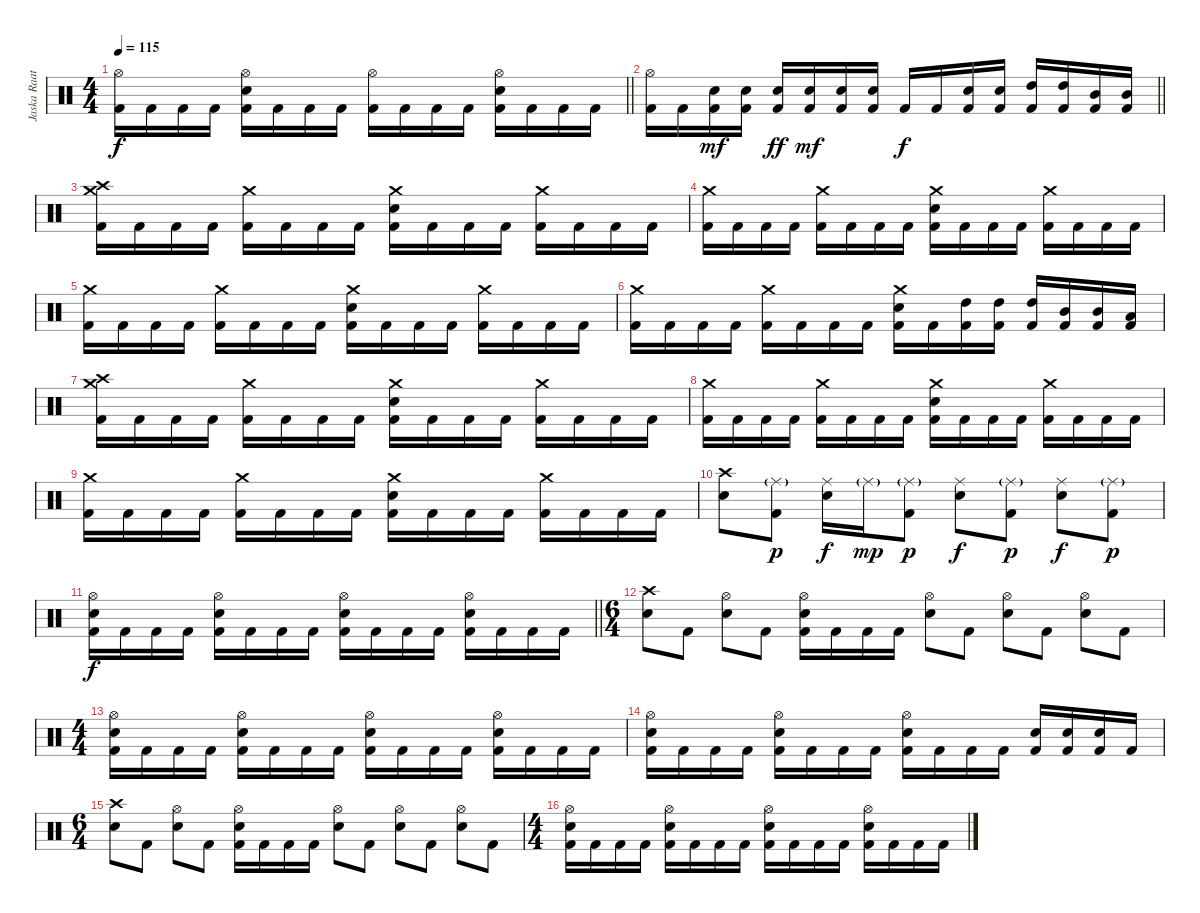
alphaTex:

\track ("Jaska Raatikainen" "Jaska Raat") {instrument percussion}
\staff {score}
\articulation defaults
\ts (4 4)
\tempo 115
\clef neutral
\barLineRight lightlight
\ks c
("Hi-Hat (open)" "Kick (hit) 2").16{dy f} "Kick (hit) 2".16 "Kick (hit) 2".16 "Kick (hit) 2".16 ("Hi-Hat (open)" "Electric Snare (hit)" "Kick (hit) 2").16 "Kick (hit) 2".16 "Kick (hit) 2".16 "Kick (hit) 2".16 ("Hi-Hat (open)" "Kick (hit) 2").16 "Kick (hit) 2".16 "Kick (hit) 2".16 "Kick (hit) 2".16 ("Hi-Hat (open)" "Electric Snare (hit)" "Kick (hit) 2").16 "Kick (hit) 2".16 "Kick (hit) 2".16 "Kick (hit) 2".16 |
\barLineRight lightlight
("Hi-Hat (open)" "Kick (hit) 2").16 "Kick (hit) 2".16 ("Electric Snare (hit)" "Kick (hit) 2").16{dy mf} ("Electric Snare (hit)" "Kick (hit) 2").16 ("Electric Snare (hit)" "Kick (hit) 2").16{dy ff} ("Electric Snare (hit)" "Kick (hit) 2").16{dy mf} ("Electric Snare (hit)" "Kick (hit) 2").16 ("Electric Snare (hit)" "Kick (hit) 2").16 "Kick (hit) 2".16{dy f} "Kick (hit) 2".16 ("Electric Snare (hit)" "Kick (hit) 2").16 ("Electric Snare (hit)" "Kick (hit) 2").16 ("High Tom (hit)" "Kick (hit) 2").16 ("High Tom (hit)" "Kick (hit) 2").16 ("Mid Tom (hit)" "Kick (hit) 2").16 ("Mid Tom (hit)" "Kick (hit) 2").16 |
("Crash high (hit)" "Crash medium (hit)" "Kick (hit) 2").16 "Kick (hit) 2".16 "Kick (hit) 2".16 "Kick (hit) 2".16 ("Crash medium (hit)" "Kick (hit) 2").16 "Kick (hit) 2".16 "Kick (hit) 2".16 "Kick (hit) 2".16 ("Crash medium (hit)" "Electric Snare (hit)" "Kick (hit) 2").16 "Kick (hit) 2".16 "Kick (hit) 2".16 "Kick (hit) 2".16 ("Crash medium (hit)" "Kick (hit) 2").16 "Kick (hit) 2".16 "Kick (hit) 2".16 "Kick (hit) 2".16 |
("Crash medium (hit)" "Kick (hit) 2").16 "Kick (hit) 2".16 "Kick (hit) 2".16 "Kick (hit) 2".16 ("Crash medium (hit)" "Kick (hit) 2").16 "Kick (hit) 2".16 "Kick (hit) 2".16 "Kick (hit) 2".16 ("Crash medium (hit)" "Electric Snare (hit)" "Kick (hit) 2").16 "Kick (hit) 2".16 "Kick (hit) 2".16 "Kick (hit) 2".16 ("Crash medium (hit)" "Kick (hit) 2").16 "Kick (hit) 2".16 "Kick (hit) 2".16 "Kick (hit) 2".16 |
("Crash medium (hit)" "Kick (hit) 2").16 "Kick (hit) 2".16 "Kick (hit) 2".16 "Kick (hit) 2".16 ("Crash medium (hit)" "Kick (hit) 2").16 "Kick (hit) 2".16 "Kick (hit) 2".16 "Kick (hit) 2".16 ("Crash medium (hit)" "Electric Snare (hit)" "Kick (hit) 2").16 "Kick (hit) 2".16 "Kick (hit) 2".16 "Kick (hit) 2".16 ("Crash medium (hit)" "Kick (hit) 2").16 "Kick (hit) 2".16 "Kick (hit) 2".16 "Kick (hit) 2".16 |
("Crash medium (hit)" "Kick (hit) 2").16 "Kick (hit) 2".16 "Kick (hit) 2".16 "Kick (hit) 2".16 ("Crash medium (hit)" "Kick (hit) 2").16 "Kick (hit) 2".16 "Kick (hit) 2".16 "Kick (hit) 2".16 ("Crash medium (hit)" "Electric Snare (hit)" "Kick (hit) 2").16 "Kick (hit) 2".16 ("High Tom (hit)" "Kick (hit) 2").16 ("High Tom (hit)" "Kick (hit) 2").16 ("High Tom (hit)" "Kick (hit) 2").16 ("Mid Tom (hit)" "Kick (hit) 2").16 ("Mid Tom (hit)" "Kick (hit) 2").16 ("Low Tom (hit)" "Kick (hit) 2").16 |
("Crash high (hit)" "Crash medium (hit)" "Kick (hit) 2").16 "Kick (hit) 2".16 "Kick (hit) 2".16 "Kick (hit) 2".16 ("Crash medium (hit)" "Kick (hit) 2").16 "Kick (hit) 2".16 "Kick (hit) 2".16 "Kick (hit) 2".16 ("Crash medium (hit)" "Electric Snare (hit)" "Kick (hit) 2").16 "Kick (hit) 2".16 "Kick (hit) 2".16 "Kick (hit) 2".16 ("Crash medium (hit)" "Kick (hit) 2").16 "Kick (hit) 2".16 "Kick (hit) 2".16 "Kick (hit) 2".16 |
("Crash medium (hit)" "Kick (hit) 2").16 "Kick (hit) 2".16 "Kick (hit) 2".16 "Kick (hit) 2".16 ("Crash medium (hit)" "Kick (hit) 2").16 "Kick (hit) 2".16 "Kick (hit) 2".16 "Kick (hit) 2".16 ("Crash medium (hit)" "Electric Snare (hit)" "Kick (hit) 2").16 "Kick (hit) 2".16 "Kick (hit) 2".16 "Kick (hit) 2".16 ("Crash medium (hit)" "Kick (hit) 2").16 "Kick (hit) 2".16 "Kick (hit) 2".16 "Kick (hit) 2".16 |
("Crash medium (hit)" "Kick (hit) 2").16 "Kick (hit) 2".16 "Kick (hit) 2".16 "Kick (hit) 2".16 ("Crash medium (hit)" "Kick (hit) 2").16 "Kick (hit) 2".16 "Kick (hit) 2".16 "Kick (hit) 2".16 ("Crash medium (hit)" "Electric Snare (hit)" "Kick (hit) 2").16 "Kick (hit) 2".16 "Kick (hit) 2".16 "Kick (hit) 2".16 ("Crash medium (hit)" "Kick (hit) 2").16 "Kick (hit) 2".16 "Kick (hit) 2".16 "Kick (hit) 2".16 |
("Crash high (hit)" "Electric Snare (hit)").8 ("Ride (middle)"{g} "Kick (hit) 2").8{dy p} ("Ride (middle)" "Electric Snare (hit)").16{dy f} "Ride (middle)"{g}.16{dy mp} ("Ride (middle)"{g} "Kick (hit) 2").8{dy p} ("Ride (middle)" "Electric Snare (hit)").8{dy f} ("Ride (middle)"{g} "Kick (hit) 2").8{dy p} ("Ride (middle)" "Electric Snare (hit)").8{dy f} ("Ride (middle)"{g} "Kick (hit) 2").8{dy p} |
\barLineRight lightlight
("Hi-Hat (open)" "Electric Snare (hit)" "Kick (hit) 2").16{dy f} "Kick (hit) 2".16 "Kick (hit) 2".16 "Kick (hit) 2".16 ("Hi-Hat (open)" "Electric Snare (hit)" "Kick (hit) 2").16 "Kick (hit) 2".16 "Kick (hit) 2".16 "Kick (hit) 2".16 ("Hi-Hat (open)" "Electric Snare (hit)" "Kick (hit) 2").16 "Kick (hit) 2".16 "Kick (hit) 2".16 "Kick (hit) 2".16 ("Hi-Hat (open)" "Electric Snare (hit)" "Kick (hit) 2").16 "Kick (hit) 2".16 "Kick (hit) 2".16 "Kick (hit) 2".16 |
\ts (6 4)
("Crash high (hit)" "Electric Snare (hit)").8 "Kick (hit) 2".8 ("Hi-Hat (open)" "Electric Snare (hit)").8 "Kick (hit) 2".8 ("Hi-Hat (open)" "Electric Snare (hit)" "Kick (hit) 2").16 "Kick (hit) 2".16 "Kick (hit) 2".16 "Kick (hit) 2".16 ("Hi-Hat (open)" "Electric Snare (hit)").8 "Kick (hit) 2".8 ("Hi-Hat (open)" "Electric Snare (hit)").8 "Kick (hit) 2".8 ("Hi-Hat (open)" "Electric Snare (hit)").8 "Kick (hit) 2".8 |
\ts (4 4)
("Hi-Hat (open)" "Electric Snare (hit)" "Kick (hit) 2").16 "Kick (hit) 2".16 "Kick (hit) 2".16 "Kick (hit) 2".16 ("Hi-Hat (open)" "Electric Snare (hit)" "Kick (hit) 2").16 "Kick (hit) 2".16 "Kick (hit) 2".16 "Kick (hit) 2".16 ("Hi-Hat (open)" "Electric Snare (hit)" "Kick (hit) 2").16 "Kick (hit) 2".16 "Kick (hit) 2".16 "Kick (hit) 2".16 ("Hi-Hat (open)" "Electric Snare (hit)" "Kick (hit) 2").16 "Kick (hit) 2".16 "Kick (hit) 2".16 "Kick (hit) 2".16 |
("Hi-Hat (open)" "Electric Snare (hit)" "Kick (hit) 2").16 "Kick (hit) 2".16 "Kick (hit) 2".16 "Kick (hit) 2".16 ("Hi-Hat (open)" "Electric Snare (hit)" "Kick (hit) 2").16 "Kick (hit) 2".16 "Kick (hit) 2".16 "Kick (hit) 2".16 ("Hi-Hat (open)" "Electric Snare (hit)" "Kick (hit) 2").16 "Kick (hit) 2".16 "Kick (hit) 2".16 "Kick (hit) 2".16 ("Electric Snare (hit)" "Kick (hit) 2").16 ("Electric Snare (hit)" "Kick (hit) 2").16 ("Electric Snare (hit)" "Kick (hit) 2").16 "Kick (hit) 2".16 |
\ts (6 4)
("Crash high (hit)" "Electric Snare (hit)").8 "Kick (hit) 2".8 ("Hi-Hat (open)" "Electric Snare (hit)").8 "Kick (hit) 2".8 ("Hi-Hat (open)" "Electric Snare (hit)" "Kick (hit) 2").16 "Kick (hit) 2".16 "Kick (hit) 2".16 "Kick (hit) 2".16 ("Hi-Hat (open)" "Electric Snare (hit)").8 "Kick (hit) 2".8 ("Hi-Hat (open)" "Electric Snare (hit)").8 "Kick (hit) 2".8 ("Hi-Hat (open)" "Electric Snare (hit)").8 "Kick (hit) 2".8 |
\ts (4 4)
("Hi-Hat (open)" "Electric Snare (hit)" "Kick (hit) 2").16 "Kick (hit) 2".16 "Kick (hit) 2".16 "Kick (hit) 2".16 ("Hi-Hat (open)" "Electric Snare (hit)" "Kick (hit) 2").16 "Kick (hit) 2".16 "Kick (hit) 2".16 "Kick (hit) 2".16 ("Hi-Hat (open)" "Electric Snare (hit)" "Kick (hit) 2").16 "Kick (hit) 2".16 "Kick (hit) 2".16 "Kick (hit) 2".16 ("Hi-Hat (open)" "Electric Snare (hit)" "Kick (hit) 2").16 "Kick (hit) 2".16 "Kick (hit) 2".16 "Kick (hit) 2".16
